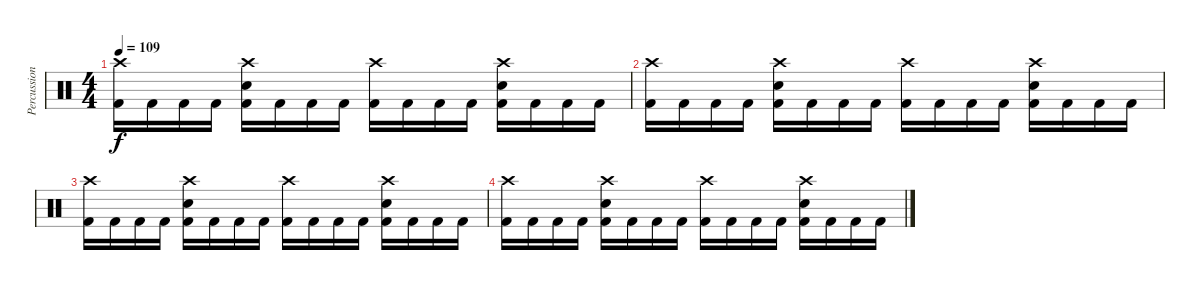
\track ("Percussion" "Percussion") {instrument percussion}
\staff {score}
\articulation defaults
\ts (4 4)
\tempo 109
\clef neutral
\ks c
("Crash high (hit)" "Kick (hit) 2").16{dy f} "Kick (hit) 2".16 "Kick (hit) 2".16 "Kick (hit) 2".16 ("Crash high (hit)" "Electric Snare (hit)" "Kick (hit) 2").16 "Kick (hit) 2".16 "Kick (hit) 2".16 "Kick (hit) 2".16 ("Crash high (hit)" "Kick (hit) 2").16 "Kick (hit) 2".16 "Kick (hit) 2".16 "Kick (hit) 2".16 ("Crash high (hit)" "Electric Snare (hit)" "Kick (hit) 2").16 "Kick (hit) 2".16 "Kick (hit) 2".16 "Kick (hit) 2".16 |
("Crash high (hit)" "Kick (hit) 2").16 "Kick (hit) 2".16 "Kick (hit) 2".16 "Kick (hit) 2".16 ("Crash high (hit)" "Electric Snare (hit)" "Kick (hit) 2").16 "Kick (hit) 2".16 "Kick (hit) 2".16 "Kick (hit) 2".16 ("Crash high (hit)" "Kick (hit) 2").16 "Kick (hit) 2".16 "Kick (hit) 2".16 "Kick (hit) 2".16 ("Crash high (hit)" "Electric Snare (hit)" "Kick (hit) 2").16 "Kick (hit) 2".16 "Kick (hit) 2".16 "Kick (hit) 2".16 |
("Crash high (hit)" "Kick (hit) 2").16 "Kick (hit) 2".16 "Kick (hit) 2".16 "Kick (hit) 2".16 ("Crash high (hit)" "Electric Snare (hit)" "Kick (hit) 2").16 "Kick (hit) 2".16 "Kick (hit) 2".16 "Kick (hit) 2".16 ("Crash high (hit)" "Kick (hit) 2").16 "Kick (hit) 2".16 "Kick (hit) 2".16 "Kick (hit) 2".16 ("Crash high (hit)" "Electric Snare (hit)" "Kick (hit) 2").16 "Kick (hit) 2".16 "Kick (hit) 2".16 "Kick (hit) 2".16 |
("Crash high (hit)" "Kick (hit) 2").16 "Kick (hit) 2".16 "Kick (hit) 2".16 "Kick (hit) 2".16 ("Crash high (hit)" "Electric Snare (hit)" "Kick (hit) 2").16 "Kick (hit) 2".16 "Kick (hit) 2".16 "Kick (hit) 2".16 ("Crash high (hit)" "Kick (hit) 2").16 "Kick (hit) 2".16 "Kick (hit) 2".16 "Kick (hit) 2".16 ("Crash high (hit)" "Electric Snare (hit)" "Kick (hit) 2").16 "Kick (hit) 2".16 "Kick (hit) 2".16 "Kick (hit) 2".16
